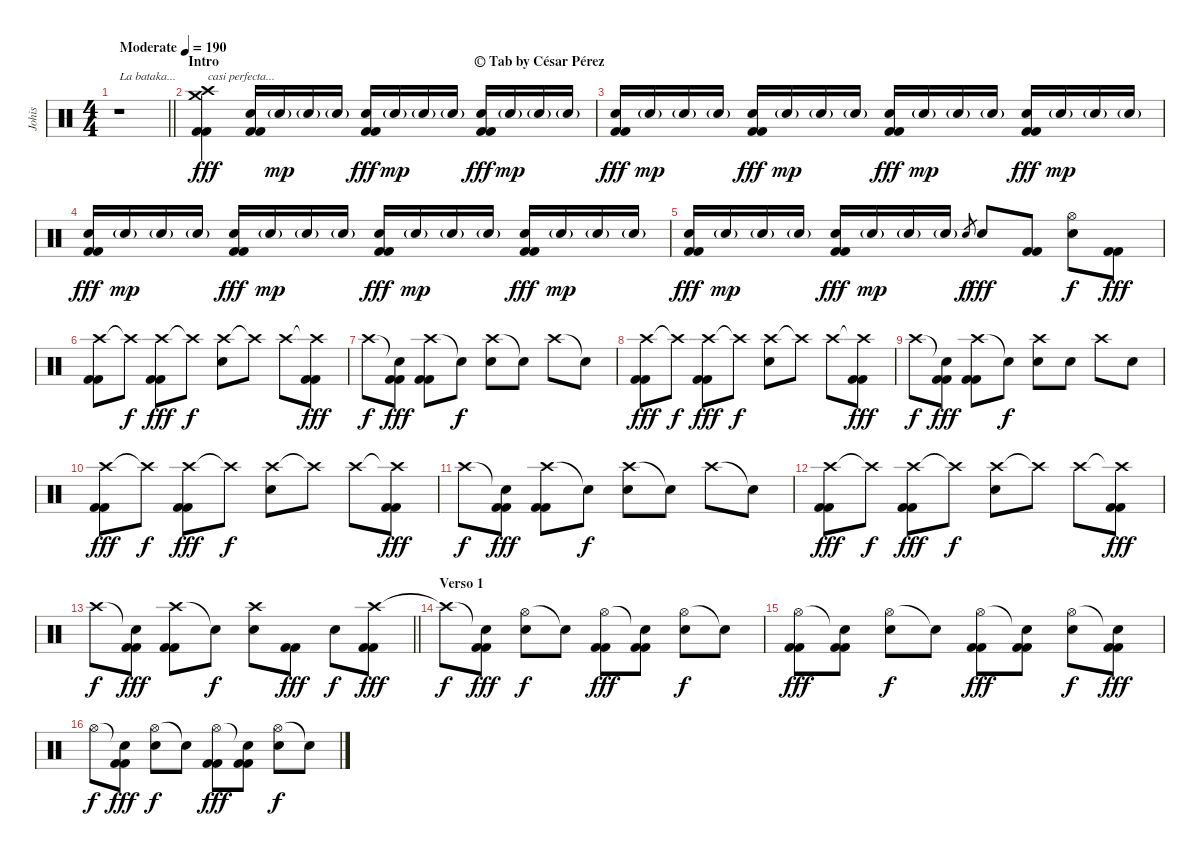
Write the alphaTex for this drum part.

\track ("Johis" "Johis") {instrument percussion}
\staff {score}
\articulation defaults
\ts (4 4)
\tempo (190 "Moderate")
\clef neutral
\barLineRight lightlight
\ks c
r.1{txt "La bataka..." dy fff} |
\section ("" "Intro                                                                         © Tab by César Pérez")
("Crash high (hit)" "Crash medium (hit)" "Kick (hit) 2" "Kick (hit) 2").4{txt "casi perfecta..."} ("Electric Snare (hit)" "Kick (hit) 2" "Kick (hit) 2").16 "Electric Snare (hit)"{g}.16{dy mp} "Electric Snare (hit)"{g}.16 "Electric Snare (hit)"{g}.16 ("Electric Snare (hit)" "Kick (hit) 2" "Kick (hit) 2").16{dy fff} "Electric Snare (hit)"{g}.16{dy mp} "Electric Snare (hit)"{g}.16 "Electric Snare (hit)"{g}.16 ("Electric Snare (hit)" "Kick (hit) 2" "Kick (hit) 2").16{dy fff} "Electric Snare (hit)"{g}.16{dy mp} "Electric Snare (hit)"{g}.16 "Electric Snare (hit)"{g}.16 |
("Electric Snare (hit)" "Kick (hit) 2" "Kick (hit) 2").16{dy fff} "Electric Snare (hit)"{g}.16{dy mp} "Electric Snare (hit)"{g}.16 "Electric Snare (hit)"{g}.16 ("Electric Snare (hit)" "Kick (hit) 2" "Kick (hit) 2").16{dy fff} "Electric Snare (hit)"{g}.16{dy mp} "Electric Snare (hit)"{g}.16 "Electric Snare (hit)"{g}.16 ("Electric Snare (hit)" "Kick (hit) 2" "Kick (hit) 2").16{dy fff} "Electric Snare (hit)"{g}.16{dy mp} "Electric Snare (hit)"{g}.16 "Electric Snare (hit)"{g}.16 ("Electric Snare (hit)" "Kick (hit) 2" "Kick (hit) 2").16{dy fff} "Electric Snare (hit)"{g}.16{dy mp} "Electric Snare (hit)"{g}.16 "Electric Snare (hit)"{g}.16 |
("Electric Snare (hit)" "Kick (hit) 2" "Kick (hit) 2").16{dy fff} "Electric Snare (hit)"{g}.16{dy mp} "Electric Snare (hit)"{g}.16 "Electric Snare (hit)"{g}.16 ("Electric Snare (hit)" "Kick (hit) 2" "Kick (hit) 2").16{dy fff} "Electric Snare (hit)"{g}.16{dy mp} "Electric Snare (hit)"{g}.16 "Electric Snare (hit)"{g}.16 ("Electric Snare (hit)" "Kick (hit) 2" "Kick (hit) 2").16{dy fff} "Electric Snare (hit)"{g}.16{dy mp} "Electric Snare (hit)"{g}.16 "Electric Snare (hit)"{g}.16 ("Electric Snare (hit)" "Kick (hit) 2" "Kick (hit) 2").16{dy fff} "Electric Snare (hit)"{g}.16{dy mp} "Electric Snare (hit)"{g}.16 "Electric Snare (hit)"{g}.16 |
("Electric Snare (hit)" "Kick (hit) 2" "Kick (hit) 2").16{dy fff} "Electric Snare (hit)"{g}.16{dy mp} "Electric Snare (hit)"{g}.16 "Electric Snare (hit)"{g}.16 ("Electric Snare (hit)" "Kick (hit) 2" "Kick (hit) 2").16{dy fff} "Electric Snare (hit)"{g}.16{dy mp} "Electric Snare (hit)"{g}.16 "Electric Snare (hit)"{g}.16 "Electric Snare (hit)"{h}.8{gr dy f} "Electric Snare (hit)".8{dy fff} ("Kick (hit) 2" "Kick (hit) 2").8 ("Hi-Hat (open)" "Electric Snare (hit)").8{dy f} ("Kick (hit) 2" "Kick (hit) 2").8{dy fff} |
("Crash high (hit)" "Kick (hit) 2" "Kick (hit) 2").8 "Crash high (hit)"{t}.8{dy f} ("Crash high (hit)" "Kick (hit) 2" "Kick (hit) 2").8{dy fff} "Crash high (hit)"{t}.8{dy f} ("Crash high (hit)" "Electric Snare (hit)").8 "Crash high (hit)"{t}.8 "Crash high (hit)".8 ("Crash high (hit)"{t} "Kick (hit) 2" "Kick (hit) 2").8{dy fff} |
"Crash high (hit)".8{dy f} ("Snare (hit)"{t} "Kick (hit) 2" "Kick (hit) 2").8{dy fff} ("Crash high (hit)" "Kick (hit) 2" "Kick (hit) 2").8 "Snare (hit)"{t}.8{dy f} ("Crash high (hit)" "Electric Snare (hit)").8 "Snare (hit)"{t}.8 "Crash high (hit)".8 "Snare (hit)"{t}.8 |
("Crash high (hit)" "Kick (hit) 2" "Kick (hit) 2").8{dy fff} "Crash high (hit)"{t}.8{dy f} ("Crash high (hit)" "Kick (hit) 2" "Kick (hit) 2").8{dy fff} "Crash high (hit)"{t}.8{dy f} ("Crash high (hit)" "Electric Snare (hit)").8 "Crash high (hit)"{t}.8 "Crash high (hit)".8 ("Crash high (hit)"{t} "Kick (hit) 2" "Kick (hit) 2").8{dy fff} |
"Crash high (hit)".8{dy f} ("Snare (hit)"{t} "Kick (hit) 2" "Kick (hit) 2").8{dy fff} ("Crash high (hit)" "Kick (hit) 2" "Kick (hit) 2").8 "Snare (hit)"{t}.8{dy f} ("Crash high (hit)" "Electric Snare (hit)").8 "Electric Snare (hit)".8 "Crash high (hit)".8 "Electric Snare (hit)".8 |
("Crash high (hit)" "Kick (hit) 2" "Kick (hit) 2").8{dy fff} "Crash high (hit)"{t}.8{dy f} ("Crash high (hit)" "Kick (hit) 2" "Kick (hit) 2").8{dy fff} "Crash high (hit)"{t}.8{dy f} ("Crash high (hit)" "Electric Snare (hit)").8 "Crash high (hit)"{t}.8 "Crash high (hit)".8 ("Crash high (hit)"{t} "Kick (hit) 2" "Kick (hit) 2").8{dy fff} |
"Crash high (hit)".8{dy f} ("Snare (hit)"{t} "Kick (hit) 2" "Kick (hit) 2").8{dy fff} ("Crash high (hit)" "Kick (hit) 2" "Kick (hit) 2").8 "Snare (hit)"{t}.8{dy f} ("Crash high (hit)" "Electric Snare (hit)").8 "Snare (hit)"{t}.8 "Crash high (hit)".8 "Snare (hit)"{t}.8 |
("Crash high (hit)" "Kick (hit) 2" "Kick (hit) 2").8{dy fff} "Crash high (hit)"{t}.8{dy f} ("Crash high (hit)" "Kick (hit) 2" "Kick (hit) 2").8{dy fff} "Crash high (hit)"{t}.8{dy f} ("Crash high (hit)" "Electric Snare (hit)").8 "Crash high (hit)"{t}.8 "Crash high (hit)".8 ("Crash high (hit)"{t} "Kick (hit) 2" "Kick (hit) 2").8{dy fff} |
\barLineRight lightlight "Crash high (hit)".8{dy f}
("Snare (hit)"{t} "Kick (hit) 2" "Kick (hit) 2").8{dy fff} ("Crash high (hit)" "Kick (hit) 2" "Kick (hit) 2").8 "Snare (hit)"{t}.8{dy f} ("Crash high (hit)" "Electric Snare (hit)").8 ("Kick (hit) 2" "Kick (hit) 2").8{dy fff} "Electric Snare (hit)".8{dy f} ("Crash high (hit)" "Kick (hit) 2" "Kick (hit) 2").8{dy fff} |
\section ("" "Verso 1")
"Crash high (hit)"{t}.8{dy f} ("Snare (hit)"{t} "Kick (hit) 2" "Kick (hit) 2").8{dy fff} ("Hi-Hat (open)" "Electric Snare (hit)").8{dy f} "Snare (hit)"{t}.8 ("Hi-Hat (open)" "Kick (hit) 2" "Kick (hit) 2").8{dy fff} ("Snare (hit)"{t} "Kick (hit) 2" "Kick (hit) 2").8 ("Hi-Hat (open)" "Electric Snare (hit)").8{dy f} "Snare (hit)"{t}.8 |
("Hi-Hat (open)" "Kick (hit) 2" "Kick (hit) 2").8{dy fff} ("Snare (hit)"{t} "Kick (hit) 2" "Kick (hit) 2").8 ("Hi-Hat (open)" "Electric Snare (hit)").8{dy f} "Snare (hit)"{t}.8 ("Hi-Hat (open)" "Kick (hit) 2" "Kick (hit) 2").8{dy fff} ("Snare (hit)"{t} "Kick (hit) 2" "Kick (hit) 2").8 ("Hi-Hat (open)" "Electric Snare (hit)").8{dy f} ("Snare (hit)"{t} "Kick (hit) 2" "Kick (hit) 2").8{dy fff} |
"Hi-Hat (open)".8{dy f} ("Snare (hit)"{t} "Kick (hit) 2" "Kick (hit) 2").8{dy fff} ("Hi-Hat (open)" "Electric Snare (hit)").8{dy f} "Snare (hit)"{t}.8 ("Hi-Hat (open)" "Kick (hit) 2" "Kick (hit) 2").8{dy fff} ("Snare (hit)"{t} "Kick (hit) 2" "Kick (hit) 2").8 ("Hi-Hat (open)" "Electric Snare (hit)").8{dy f} "Snare (hit)"{t}.8
